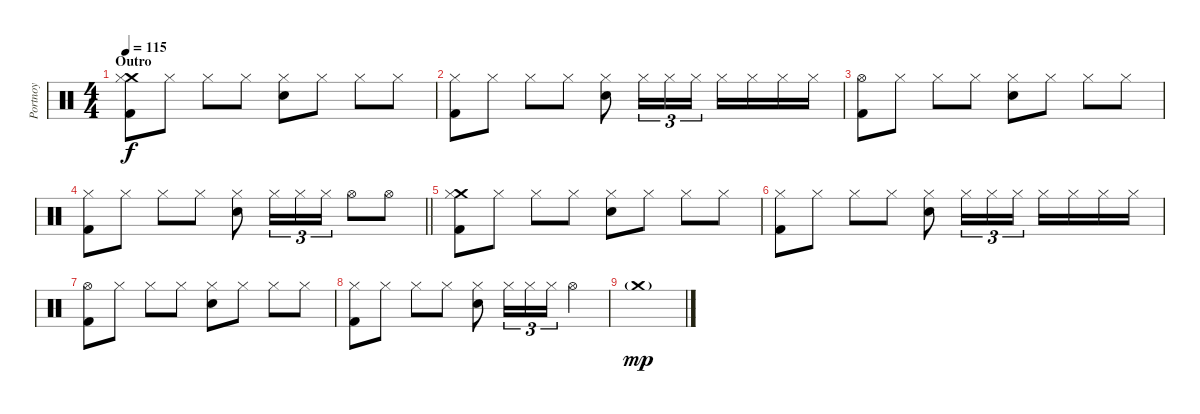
\track ("Portnoy" "Portnoy") {instrument percussion}
\staff {score}
\articulation defaults
\ts (4 4)
\section ("" "Outro")
\tempo 115
\clef neutral
\ks c
("Crash medium (hit)" "Hi-Hat (closed)" "Kick (hit) 2").8{dy f} "Hi-Hat (closed)".8 "Hi-Hat (closed)".8 "Hi-Hat (closed)".8 ("Hi-Hat (closed)" "Snare (hit) 2").8 "Hi-Hat (closed)".8 "Hi-Hat (closed)".8 "Hi-Hat (closed)".8 |
("Hi-Hat (closed)" "Kick (hit) 2").8 "Hi-Hat (closed)".8 "Hi-Hat (closed)".8 "Hi-Hat (closed)".8 ("Hi-Hat (closed)" "Snare (hit) 2").8 "Hi-Hat (closed)".16{tu (3 2)} "Hi-Hat (closed)".16{tu (3 2)} "Hi-Hat (closed)".16{tu (3 2)} "Hi-Hat (closed)".16 "Hi-Hat (closed)".16 "Hi-Hat (closed)".16 "Hi-Hat (closed)".16 |
("Hi-Hat (open)" "Kick (hit) 2").8 "Hi-Hat (closed)".8 "Hi-Hat (closed)".8 "Hi-Hat (closed)".8 ("Hi-Hat (closed)" "Snare (hit) 2").8 "Hi-Hat (closed)".8 "Hi-Hat (closed)".8 "Hi-Hat (closed)".8 |
\barLineRight lightlight
("Hi-Hat (closed)" "Kick (hit) 2").8 "Hi-Hat (closed)".8 "Hi-Hat (closed)".8 "Hi-Hat (closed)".8 ("Hi-Hat (closed)" "Snare (hit) 2").8 "Hi-Hat (closed)".16{tu (3 2)} "Hi-Hat (closed)".16{tu (3 2)} "Hi-Hat (closed)".16{tu (3 2)} "Hi-Hat (open)".8 "Hi-Hat (open)".8 |
("Crash medium (hit)" "Hi-Hat (closed)" "Kick (hit) 2").8 "Hi-Hat (closed)".8 "Hi-Hat (closed)".8 "Hi-Hat (closed)".8 ("Hi-Hat (closed)" "Snare (hit) 2").8 "Hi-Hat (closed)".8 "Hi-Hat (closed)".8 "Hi-Hat (closed)".8 |
("Hi-Hat (closed)" "Kick (hit) 2").8 "Hi-Hat (closed)".8 "Hi-Hat (closed)".8 "Hi-Hat (closed)".8 ("Hi-Hat (closed)" "Snare (hit) 2").8 "Hi-Hat (closed)".16{tu (3 2)} "Hi-Hat (closed)".16{tu (3 2)} "Hi-Hat (closed)".16{tu (3 2)} "Hi-Hat (closed)".16 "Hi-Hat (closed)".16 "Hi-Hat (closed)".16 "Hi-Hat (closed)".16 |
("Hi-Hat (open)" "Kick (hit) 2").8 "Hi-Hat (closed)".8 "Hi-Hat (closed)".8 "Hi-Hat (closed)".8 ("Hi-Hat (closed)" "Snare (hit) 2").8 "Hi-Hat (closed)".8 "Hi-Hat (closed)".8 "Hi-Hat (closed)".8 |
("Hi-Hat (closed)" "Kick (hit) 2").8 "Hi-Hat (closed)".8 "Hi-Hat (closed)".8 "Hi-Hat (closed)".8 ("Hi-Hat (closed)" "Snare (hit) 2").8 "Hi-Hat (closed)".16{tu (3 2)} "Hi-Hat (closed)".16{tu (3 2)} "Hi-Hat (closed)".16{tu (3 2)} "Hi-Hat (open)".4 |
"Crash medium (hit)"{g}.1{dy mp}
